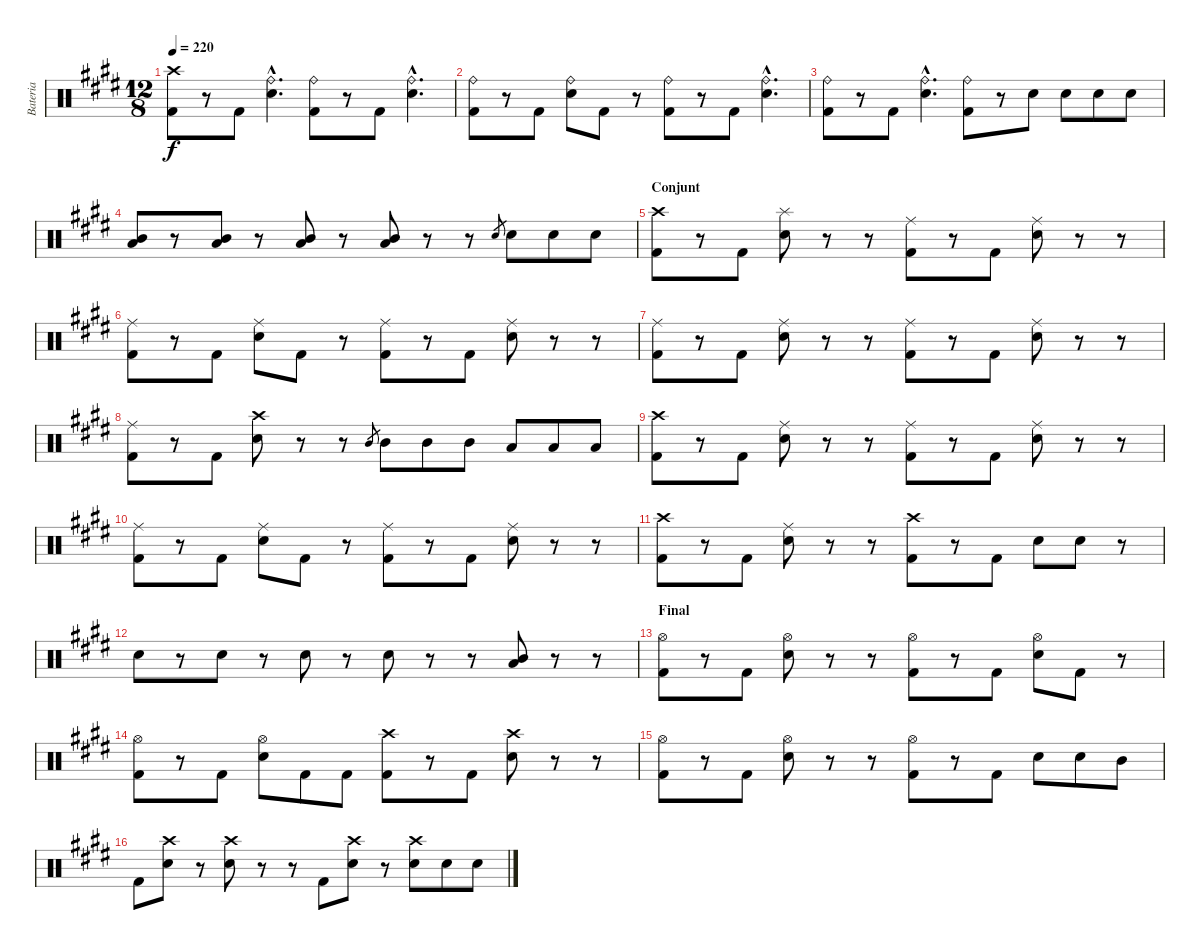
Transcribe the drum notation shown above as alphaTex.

\track ("Bateria" "Bateria") {instrument percussion}
\staff {score}
\articulation defaults
\ts (12 8)
\tempo 220
\clef neutral
\ks e
("Crash high (hit)" "Kick (hit) 2").8{dy f} r.8 "Kick (hit) 2".8 ("Ride (bell)"{hac} "Electric Snare (hit)"{hac}).4{d} ("Ride (bell)" "Kick (hit) 2").8 r.8 "Kick (hit) 2".8 ("Ride (bell)"{hac} "Electric Snare (hit)"{hac}).4{d} |
("Ride (bell)" "Kick (hit) 2").8 r.8 "Kick (hit) 2".8 ("Ride (bell)" "Electric Snare (hit)").8 "Kick (hit) 2".8 r.8 ("Ride (bell)" "Kick (hit) 2").8 r.8 "Kick (hit) 2".8 ("Ride (bell)"{hac} "Electric Snare (hit)"{hac}).4{d} |
("Ride (bell)" "Kick (hit) 2").8 r.8 "Kick (hit) 2".8 ("Ride (bell)"{hac} "Electric Snare (hit)"{hac}).4{d} ("Ride (bell)" "Kick (hit) 2").8 r.8 "Electric Snare (hit)".8 "Electric Snare (hit)".8 "Electric Snare (hit)".8 "Electric Snare (hit)".8 |
("Mid Tom (hit)" "Low Tom (hit)").8 r.8 ("Mid Tom (hit)" "Low Tom (hit)").8 r.8 ("Mid Tom (hit)" "Low Tom (hit)").8 r.8 ("Mid Tom (hit)" "Low Tom (hit)").8 r.8 r.8 "Electric Snare (hit)".8{gr} "Electric Snare (hit)".8 "Electric Snare (hit)".8 "Electric Snare (hit)".8 |
\section ("" "Conjunt")
("Crash high (hit)" "Kick (hit) 2").8 r.8 "Kick (hit) 2".8 ("Splash (hit)" "Electric Snare (hit)").8 r.8 r.8 ("Ride (middle)" "Kick (hit) 2").8 r.8 "Kick (hit) 2".8 ("Ride (middle)" "Electric Snare (hit)").8 r.8 r.8 |
("Ride (middle)" "Kick (hit) 2").8 r.8 "Kick (hit) 2".8 ("Ride (middle)" "Electric Snare (hit)").8 "Kick (hit) 2".8 r.8 ("Ride (middle)" "Kick (hit) 2").8 r.8 "Kick (hit) 2".8 ("Ride (middle)" "Electric Snare (hit)").8 r.8 r.8 |
("Ride (middle)" "Kick (hit) 2").8 r.8 "Kick (hit) 2".8 ("Ride (middle)" "Electric Snare (hit)").8 r.8 r.8 ("Ride (middle)" "Kick (hit) 2").8 r.8 "Kick (hit) 2".8 ("Ride (middle)" "Electric Snare (hit)").8 r.8 r.8 |
("Ride (middle)" "Kick (hit) 2").8 r.8 "Kick (hit) 2".8 ("Crash high (hit)" "Electric Snare (hit)").8 r.8 r.8 "Mid Tom (hit)".8{gr} "Mid Tom (hit)".8 "Mid Tom (hit)".8 "Mid Tom (hit)".8 "Low Tom (hit)".8 "Low Tom (hit)".8 "Low Tom (hit)".8 |
("Crash high (hit)" "Kick (hit) 2").8 r.8 "Kick (hit) 2".8 ("Ride (middle)" "Electric Snare (hit)").8 r.8 r.8 ("Ride (middle)" "Kick (hit) 2").8 r.8 "Kick (hit) 2".8 ("Ride (middle)" "Electric Snare (hit)").8 r.8 r.8 |
("Ride (middle)" "Kick (hit) 2").8 r.8 "Kick (hit) 2".8 ("Ride (middle)" "Electric Snare (hit)").8 "Kick (hit) 2".8 r.8 ("Ride (middle)" "Kick (hit) 2").8 r.8 "Kick (hit) 2".8 ("Ride (middle)" "Electric Snare (hit)").8 r.8 r.8 |
("Crash high (hit)" "Kick (hit) 2").8 r.8 "Kick (hit) 2".8 ("Ride (middle)" "Electric Snare (hit)").8 r.8 r.8 ("Crash high (hit)" "Kick (hit) 2").8 r.8 "Kick (hit) 2".8 "Electric Snare (hit)".8 "Electric Snare (hit)".8 r.8 |
"Electric Snare (hit)".8 r.8 "Electric Snare (hit)".8 r.8 "Electric Snare (hit)".8 r.8 "Electric Snare (hit)".8 r.8 r.8 ("Low Tom (hit)" "Mid Tom (hit)").8 r.8 r.8 |
\section ("" "Final")
("Hi-Hat (open)" "Kick (hit) 2").8 r.8 "Kick (hit) 2".8 ("Hi-Hat (open)" "Electric Snare (hit)").8 r.8 r.8 ("Hi-Hat (open)" "Kick (hit) 2").8 r.8 "Kick (hit) 2".8 ("Hi-Hat (open)" "Electric Snare (hit)").8 "Kick (hit) 2".8 r.8 |
("Hi-Hat (open)" "Kick (hit) 2").8 r.8 "Kick (hit) 2".8 ("Hi-Hat (open)" "Electric Snare (hit)").8 "Kick (hit) 2".8 "Kick (hit) 2".8 ("Crash high (hit)" "Kick (hit) 2").8 r.8 "Kick (hit) 2".8 ("Crash high (hit)" "Electric Snare (hit)").8 r.8 r.8 |
("Hi-Hat (open)" "Kick (hit) 2").8 r.8 "Kick (hit) 2".8 ("Hi-Hat (open)" "Electric Snare (hit)").8 r.8 r.8 ("Hi-Hat (open)" "Kick (hit) 2").8 r.8 "Kick (hit) 2".8 "Electric Snare (hit)".8 "Electric Snare (hit)".8 "Mid Tom (hit)".8 |
"Kick (hit) 2".8 ("Crash high (hit)" "Electric Snare (hit)").8 r.8 ("Crash high (hit)" "Electric Snare (hit)").8 r.8 r.8 "Kick (hit) 2".8 ("Crash high (hit)" "Electric Snare (hit)").8 r.8 ("Crash high (hit)" "Electric Snare (hit)").8 "Electric Snare (hit)".8 "Electric Snare (hit)".8
